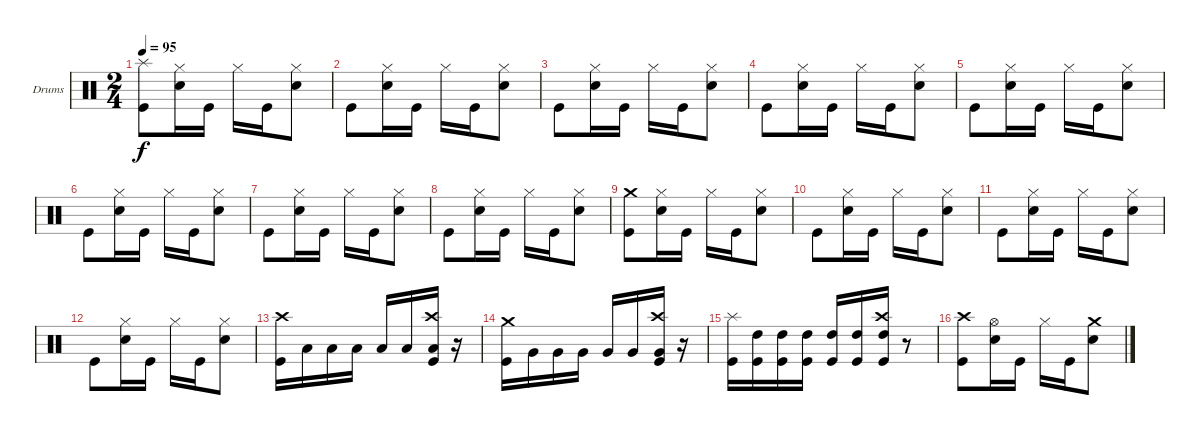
\bracketExtendMode groupsimilarinstruments
\firstSystemTrackNameOrientation horizontal
\otherSystemsTrackNameOrientation horizontal
\track ("Drumkit" "Drums") {instrument percussion}
\staff {score}
\articulation defaults
\ts (2 4)
\tempo 95
\clef neutral
\ks c
("Kick (hit)" "Splash (hit)").8{dy f} ("Hi-Hat (closed)" "Snare (hit) 2").16 "Kick (hit)".16 "Hi-Hat (closed)".16 "Kick (hit)".16 ("Hi-Hat (closed)" "Snare (hit) 2").8 |
"Kick (hit)".8 ("Hi-Hat (closed)" "Snare (hit) 2").16 "Kick (hit)".16 "Hi-Hat (closed)".16 "Kick (hit)".16 ("Hi-Hat (closed)" "Snare (hit) 2").8 |
"Kick (hit)".8 ("Hi-Hat (closed)" "Snare (hit) 2").16 "Kick (hit)".16 "Hi-Hat (closed)".16 "Kick (hit)".16 ("Hi-Hat (closed)" "Snare (hit) 2").8 |
"Kick (hit)".8 ("Hi-Hat (closed)" "Snare (hit) 2").16 "Kick (hit)".16 "Hi-Hat (closed)".16 "Kick (hit)".16 ("Hi-Hat (closed)" "Snare (hit) 2").8 |
"Kick (hit)".8 ("Hi-Hat (closed)" "Snare (hit) 2").16 "Kick (hit)".16 "Hi-Hat (closed)".16 "Kick (hit)".16 ("Hi-Hat (closed)" "Snare (hit) 2").8 |
"Kick (hit)".8 ("Hi-Hat (closed)" "Snare (hit) 2").16 "Kick (hit)".16 "Hi-Hat (closed)".16 "Kick (hit)".16 ("Hi-Hat (closed)" "Snare (hit) 2").8 |
"Kick (hit)".8 ("Hi-Hat (closed)" "Snare (hit) 2").16 "Kick (hit)".16 "Hi-Hat (closed)".16 "Kick (hit)".16 ("Hi-Hat (closed)" "Snare (hit) 2").8 |
"Kick (hit)".8 ("Hi-Hat (closed)" "Snare (hit) 2").16 "Kick (hit)".16 "Hi-Hat (closed)".16 "Kick (hit)".16 ("Hi-Hat (closed)" "Snare (hit) 2").8 |
("Kick (hit)" "Crash medium (hit)").8 ("Hi-Hat (closed)" "Snare (hit) 2").16 "Kick (hit)".16 "Hi-Hat (closed)".16 "Kick (hit)".16 ("Hi-Hat (closed)" "Snare (hit) 2").8 |
"Kick (hit)".8 ("Hi-Hat (closed)" "Snare (hit) 2").16 "Kick (hit)".16 "Hi-Hat (closed)".16 "Kick (hit)".16 ("Hi-Hat (closed)" "Snare (hit) 2").8 |
"Kick (hit)".8 ("Hi-Hat (closed)" "Snare (hit) 2").16 "Kick (hit)".16 "Hi-Hat (closed)".16 "Kick (hit)".16 ("Hi-Hat (closed)" "Snare (hit) 2").8 |
"Kick (hit)".8 ("Hi-Hat (closed)" "Snare (hit) 2").16 "Kick (hit)".16 "Hi-Hat (closed)".16 "Kick (hit)".16 ("Hi-Hat (closed)" "Snare (hit) 2").8 |
("Kick (hit)" "Crash high (hit)").16 "Low Tom (hit)".16 "Low Tom (hit)".16 "Low Tom (hit)".16 "Low Tom (hit)".16 "Low Tom (hit)".16 ("Kick (hit)" "Low Tom (hit)" "Crash high (hit)").16 r.16 |
("Kick (hit)" "Crash medium (hit)").16 "Very Low Tom (hit)".16 "Very Low Tom (hit)".16 "Very Low Tom (hit)".16 "Very Low Tom (hit)".16 "Very Low Tom (hit)".16 ("Kick (hit)" "Very Low Tom (hit)" "Crash high (hit)").16 r.16 |
("Kick (hit)" "Splash (hit)").16 ("Kick (hit)" "High Tom (hit)").16 ("Kick (hit)" "High Tom (hit)").16 ("Kick (hit)" "High Tom (hit)").16 ("Kick (hit)" "High Tom (hit)").16 ("Kick (hit)" "High Tom (hit)").16 ("Kick (hit)" "High Tom (hit)" "Crash high (hit)").16 r.8 |
("Kick (hit)" "Crash high (hit)").8 ("Snare (hit) 2" "Hi-Hat (open)").16 "Kick (hit)".16 "Hi-Hat (closed)".16 "Kick (hit)".16 ("Snare (hit) 2" "Crash medium (hit)").8
